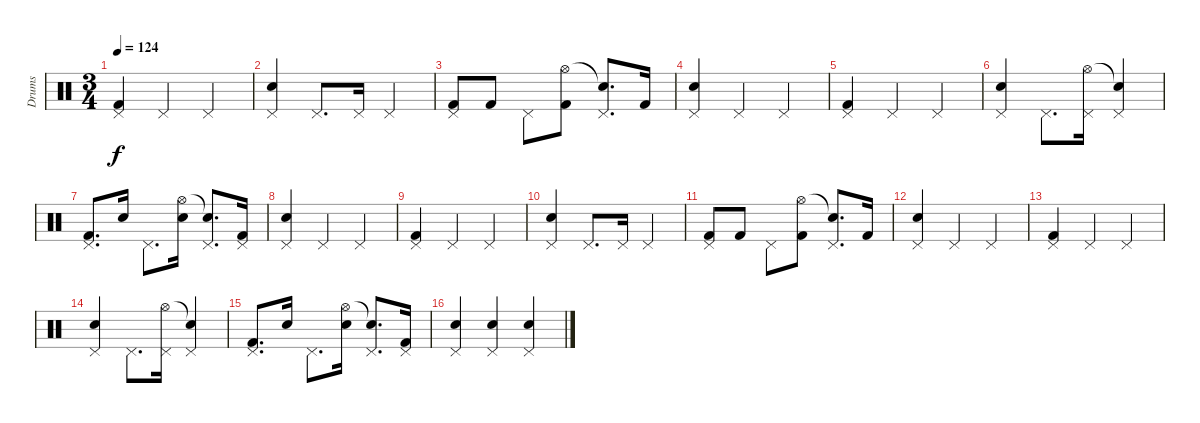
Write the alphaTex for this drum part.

\track ("Drums" "Drums") {instrument percussion}
\staff {score}
\articulation defaults
\ts (3 4)
\tempo 124
\clef neutral
\ks c
("Kick (hit) 2" "Pedal Hi-Hat (hit)").4{dy f} "Pedal Hi-Hat (hit)".4 "Pedal Hi-Hat (hit)".4 |
("Electric Snare (hit)" "Pedal Hi-Hat (hit)").4 "Pedal Hi-Hat (hit)".8{d} "Pedal Hi-Hat (hit)".16 "Pedal Hi-Hat (hit)".4 |
("Kick (hit) 2" "Pedal Hi-Hat (hit)").8 "Kick (hit) 2".8 "Pedal Hi-Hat (hit)".8 ("Kick (hit) 2" "Hi-Hat (open)").8 ("Pedal Hi-Hat (hit)" "Snare (hit)"{t}).8{d} "Kick (hit) 2".16 |
("Electric Snare (hit)" "Pedal Hi-Hat (hit)").4 "Pedal Hi-Hat (hit)".4 "Pedal Hi-Hat (hit)".4 |
("Kick (hit) 2" "Pedal Hi-Hat (hit)").4 "Pedal Hi-Hat (hit)".4 "Pedal Hi-Hat (hit)".4 |
("Electric Snare (hit)" "Pedal Hi-Hat (hit)").4 "Pedal Hi-Hat (hit)".8{d} ("Pedal Hi-Hat (hit)" "Hi-Hat (open)").16 ("Pedal Hi-Hat (hit)" "Snare (hit)"{t}).4 |
("Kick (hit) 2" "Pedal Hi-Hat (hit)").8{d} "Electric Snare (hit)".16 "Pedal Hi-Hat (hit)".8{d} ("Snare (hit) 2" "Hi-Hat (open)").16 ("Pedal Hi-Hat (hit)" "Snare (hit)"{t}).8{d} ("Kick (hit) 2" "Pedal Hi-Hat (hit)").16 |
("Electric Snare (hit)" "Pedal Hi-Hat (hit)").4 "Pedal Hi-Hat (hit)".4 "Pedal Hi-Hat (hit)".4 |
("Kick (hit) 2" "Pedal Hi-Hat (hit)").4 "Pedal Hi-Hat (hit)".4 "Pedal Hi-Hat (hit)".4 |
("Electric Snare (hit)" "Pedal Hi-Hat (hit)").4 "Pedal Hi-Hat (hit)".8{d} "Pedal Hi-Hat (hit)".16 "Pedal Hi-Hat (hit)".4 |
("Kick (hit) 2" "Pedal Hi-Hat (hit)").8 "Kick (hit) 2".8 "Pedal Hi-Hat (hit)".8 ("Kick (hit) 2" "Hi-Hat (open)").8 ("Pedal Hi-Hat (hit)" "Snare (hit)"{t}).8{d} "Kick (hit) 2".16 |
("Electric Snare (hit)" "Pedal Hi-Hat (hit)").4 "Pedal Hi-Hat (hit)".4 "Pedal Hi-Hat (hit)".4 |
("Kick (hit) 2" "Pedal Hi-Hat (hit)").4 "Pedal Hi-Hat (hit)".4 "Pedal Hi-Hat (hit)".4 |
("Electric Snare (hit)" "Pedal Hi-Hat (hit)").4 "Pedal Hi-Hat (hit)".8{d} ("Pedal Hi-Hat (hit)" "Hi-Hat (open)").16 ("Pedal Hi-Hat (hit)" "Snare (hit)"{t}).4 |
("Kick (hit) 2" "Pedal Hi-Hat (hit)").8{d} "Electric Snare (hit)".16 "Pedal Hi-Hat (hit)".8{d} ("Snare (hit) 2" "Hi-Hat (open)").16 ("Pedal Hi-Hat (hit)" "Snare (hit)"{t}).8{d} ("Kick (hit) 2" "Pedal Hi-Hat (hit)").16 |
("Electric Snare (hit)" "Pedal Hi-Hat (hit)").4 ("Electric Snare (hit)" "Pedal Hi-Hat (hit)").4 ("Electric Snare (hit)" "Pedal Hi-Hat (hit)").4
